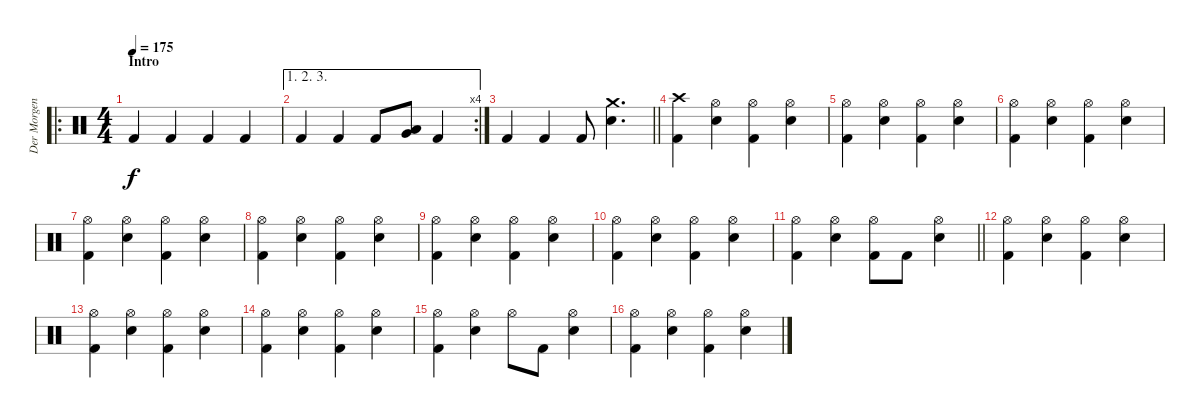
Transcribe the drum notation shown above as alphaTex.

\track ("Der Morgenstern" "Der Morgen") {instrument percussion}
\staff {score}
\articulation defaults
\ro
\ts (4 4)
\section ("" "Intro")
\tempo 175
\clef neutral
\ks c "Kick (hit) 2".4{dy f} "Kick (hit) 2".4 "Kick (hit) 2".4 "Kick (hit) 2".4
|
\ae (1 2 3)
\rc 4 "Kick (hit) 2".4 "Kick (hit) 2".4 "Kick (hit) 2".8
("Very Low Tom (hit)" "Low Floor Tom (hit)").8 "Kick (hit) 2".4 |
\barLineRight lightlight "Kick (hit) 2".4 "Kick (hit) 2".4 "Kick (hit) 2".8
("Crash medium (hit)" "Electric Snare (hit)").4{d} |
("Crash high (hit)" "Kick (hit) 2").4 ("Hi-Hat (open)" "Electric Snare (hit)").4 ("Hi-Hat (open)" "Kick (hit) 2").4 ("Hi-Hat (open)" "Electric Snare (hit)").4 |
("Hi-Hat (open)" "Kick (hit) 2").4 ("Hi-Hat (open)" "Electric Snare (hit)").4 ("Hi-Hat (open)" "Kick (hit) 2").4 ("Hi-Hat (open)" "Electric Snare (hit)").4 |
("Hi-Hat (open)" "Kick (hit) 2").4 ("Hi-Hat (open)" "Electric Snare (hit)").4 ("Hi-Hat (open)" "Kick (hit) 2").4 ("Hi-Hat (open)" "Electric Snare (hit)").4 |
("Hi-Hat (open)" "Kick (hit) 2").4 ("Hi-Hat (open)" "Electric Snare (hit)").4 ("Hi-Hat (open)" "Kick (hit) 2").4 ("Hi-Hat (open)" "Electric Snare (hit)").4 |
("Hi-Hat (open)" "Kick (hit) 2").4 ("Hi-Hat (open)" "Electric Snare (hit)").4 ("Hi-Hat (open)" "Kick (hit) 2").4 ("Hi-Hat (open)" "Electric Snare (hit)").4 |
("Hi-Hat (open)" "Kick (hit) 2").4 ("Hi-Hat (open)" "Electric Snare (hit)").4 ("Hi-Hat (open)" "Kick (hit) 2").4 ("Hi-Hat (open)" "Electric Snare (hit)").4 |
("Hi-Hat (open)" "Kick (hit) 2").4 ("Hi-Hat (open)" "Electric Snare (hit)").4 ("Hi-Hat (open)" "Kick (hit) 2").4 ("Hi-Hat (open)" "Electric Snare (hit)").4 |
\barLineRight lightlight
("Hi-Hat (open)" "Kick (hit) 2").4 ("Hi-Hat (open)" "Electric Snare (hit)").4 ("Hi-Hat (open)" "Kick (hit) 2").8 "Kick (hit) 2".8 ("Hi-Hat (open)" "Electric Snare (hit)").4 |
("Hi-Hat (open)" "Kick (hit) 2").4 ("Hi-Hat (open)" "Electric Snare (hit)").4 ("Hi-Hat (open)" "Kick (hit) 2").4 ("Hi-Hat (open)" "Electric Snare (hit)").4 |
("Hi-Hat (open)" "Kick (hit) 2").4 ("Hi-Hat (open)" "Electric Snare (hit)").4 ("Hi-Hat (open)" "Kick (hit) 2").4 ("Hi-Hat (open)" "Electric Snare (hit)").4 |
("Hi-Hat (open)" "Kick (hit) 2").4 ("Hi-Hat (open)" "Electric Snare (hit)").4 ("Hi-Hat (open)" "Kick (hit) 2").4 ("Hi-Hat (open)" "Electric Snare (hit)").4 |
("Hi-Hat (open)" "Kick (hit) 2").4 ("Hi-Hat (open)" "Electric Snare (hit)").4 "Hi-Hat (open)".8 "Kick (hit) 2".8 ("Hi-Hat (open)" "Electric Snare (hit)").4 |
("Hi-Hat (open)" "Kick (hit) 2").4 ("Hi-Hat (open)" "Electric Snare (hit)").4 ("Hi-Hat (open)" "Kick (hit) 2").4 ("Hi-Hat (open)" "Electric Snare (hit)").4
